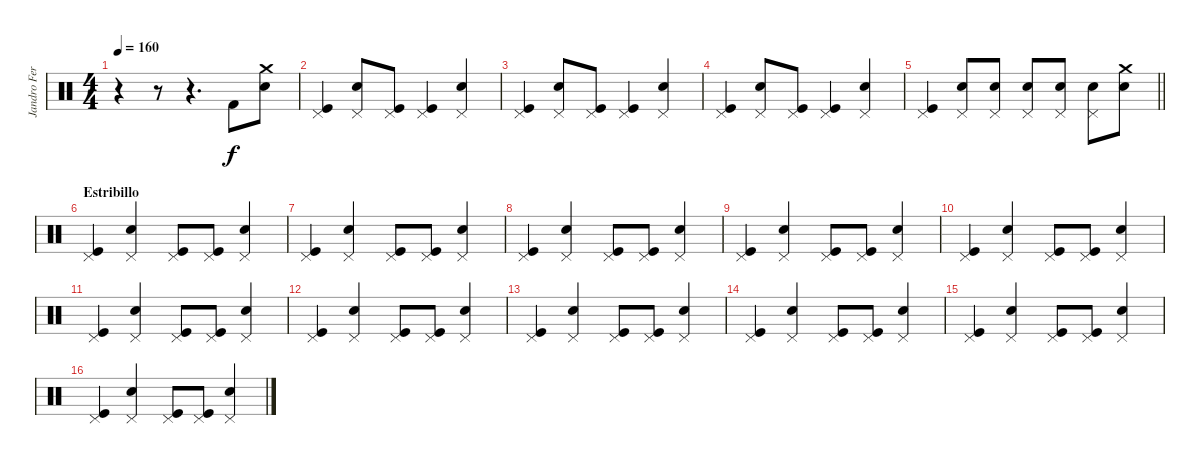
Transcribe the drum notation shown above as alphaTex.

\track ("Jandro Fernández" "Jandro Fer") {instrument percussion}
\staff
\articulation defaults
\ts (4 4)
\tempo 160
\clef neutral
\ks c
r.4{dy f} r.8 r.4{d} "Kick (hit) 2".8 ("Crash medium (hit)" "Snare (hit) 2").8 |
("Pedal Hi-Hat (hit)" "Kick (hit)").4 ("Pedal Hi-Hat (hit)" "Snare (hit) 2").8 ("Pedal Hi-Hat (hit)" "Kick (hit)").8 ("Pedal Hi-Hat (hit)" "Kick (hit)").4 ("Pedal Hi-Hat (hit)" "Snare (hit) 2").4 |
("Pedal Hi-Hat (hit)" "Kick (hit)").4 ("Pedal Hi-Hat (hit)" "Snare (hit) 2").8 ("Pedal Hi-Hat (hit)" "Kick (hit)").8 ("Pedal Hi-Hat (hit)" "Kick (hit)").4 ("Pedal Hi-Hat (hit)" "Snare (hit) 2").4 |
("Pedal Hi-Hat (hit)" "Kick (hit)").4 ("Pedal Hi-Hat (hit)" "Snare (hit) 2").8 ("Pedal Hi-Hat (hit)" "Kick (hit)").8 ("Pedal Hi-Hat (hit)" "Kick (hit)").4 ("Pedal Hi-Hat (hit)" "Snare (hit) 2").4 |
\barLineRight lightlight
("Pedal Hi-Hat (hit)" "Kick (hit)").4 ("Snare (hit) 2" "Pedal Hi-Hat (hit)").8 ("Snare (hit) 2" "Pedal Hi-Hat (hit)").8 ("Snare (hit) 2" "Pedal Hi-Hat (hit)").8 ("Snare (hit) 2" "Pedal Hi-Hat (hit)").8 ("Snare (hit) 2" "Pedal Hi-Hat (hit)").8 ("Snare (hit) 2" "Crash medium (hit)").8 |
\section ("" "Estribillo")
("Pedal Hi-Hat (hit)" "Kick (hit)").4 ("Pedal Hi-Hat (hit)" "Snare (hit) 2").4 ("Pedal Hi-Hat (hit)" "Kick (hit)").8 ("Pedal Hi-Hat (hit)" "Kick (hit)").8 ("Pedal Hi-Hat (hit)" "Snare (hit) 2").4 |
("Pedal Hi-Hat (hit)" "Kick (hit)").4 ("Pedal Hi-Hat (hit)" "Snare (hit) 2").4 ("Pedal Hi-Hat (hit)" "Kick (hit)").8 ("Pedal Hi-Hat (hit)" "Kick (hit)").8 ("Pedal Hi-Hat (hit)" "Snare (hit) 2").4 |
("Pedal Hi-Hat (hit)" "Kick (hit)").4 ("Pedal Hi-Hat (hit)" "Snare (hit) 2").4 ("Pedal Hi-Hat (hit)" "Kick (hit)").8 ("Pedal Hi-Hat (hit)" "Kick (hit)").8 ("Pedal Hi-Hat (hit)" "Snare (hit) 2").4 |
("Pedal Hi-Hat (hit)" "Kick (hit)").4 ("Pedal Hi-Hat (hit)" "Snare (hit) 2").4 ("Pedal Hi-Hat (hit)" "Kick (hit)").8 ("Pedal Hi-Hat (hit)" "Kick (hit)").8 ("Pedal Hi-Hat (hit)" "Snare (hit) 2").4 |
("Pedal Hi-Hat (hit)" "Kick (hit)").4 ("Pedal Hi-Hat (hit)" "Snare (hit) 2").4 ("Pedal Hi-Hat (hit)" "Kick (hit)").8 ("Pedal Hi-Hat (hit)" "Kick (hit)").8 ("Pedal Hi-Hat (hit)" "Snare (hit) 2").4 |
("Pedal Hi-Hat (hit)" "Kick (hit)").4 ("Pedal Hi-Hat (hit)" "Snare (hit) 2").4 ("Pedal Hi-Hat (hit)" "Kick (hit)").8 ("Pedal Hi-Hat (hit)" "Kick (hit)").8 ("Pedal Hi-Hat (hit)" "Snare (hit) 2").4 |
("Pedal Hi-Hat (hit)" "Kick (hit)").4 ("Pedal Hi-Hat (hit)" "Snare (hit) 2").4 ("Pedal Hi-Hat (hit)" "Kick (hit)").8 ("Pedal Hi-Hat (hit)" "Kick (hit)").8 ("Pedal Hi-Hat (hit)" "Snare (hit) 2").4 |
("Pedal Hi-Hat (hit)" "Kick (hit)").4 ("Pedal Hi-Hat (hit)" "Snare (hit) 2").4 ("Pedal Hi-Hat (hit)" "Kick (hit)").8 ("Pedal Hi-Hat (hit)" "Kick (hit)").8 ("Pedal Hi-Hat (hit)" "Snare (hit) 2").4 |
("Pedal Hi-Hat (hit)" "Kick (hit)").4 ("Pedal Hi-Hat (hit)" "Snare (hit) 2").4 ("Pedal Hi-Hat (hit)" "Kick (hit)").8 ("Pedal Hi-Hat (hit)" "Kick (hit)").8 ("Pedal Hi-Hat (hit)" "Snare (hit) 2").4 |
("Pedal Hi-Hat (hit)" "Kick (hit)").4 ("Pedal Hi-Hat (hit)" "Snare (hit) 2").4 ("Pedal Hi-Hat (hit)" "Kick (hit)").8 ("Pedal Hi-Hat (hit)" "Kick (hit)").8 ("Pedal Hi-Hat (hit)" "Snare (hit) 2").4 |
("Pedal Hi-Hat (hit)" "Kick (hit)").4 ("Pedal Hi-Hat (hit)" "Snare (hit) 2").4 ("Pedal Hi-Hat (hit)" "Kick (hit)").8 ("Pedal Hi-Hat (hit)" "Kick (hit)").8 ("Pedal Hi-Hat (hit)" "Snare (hit) 2").4
